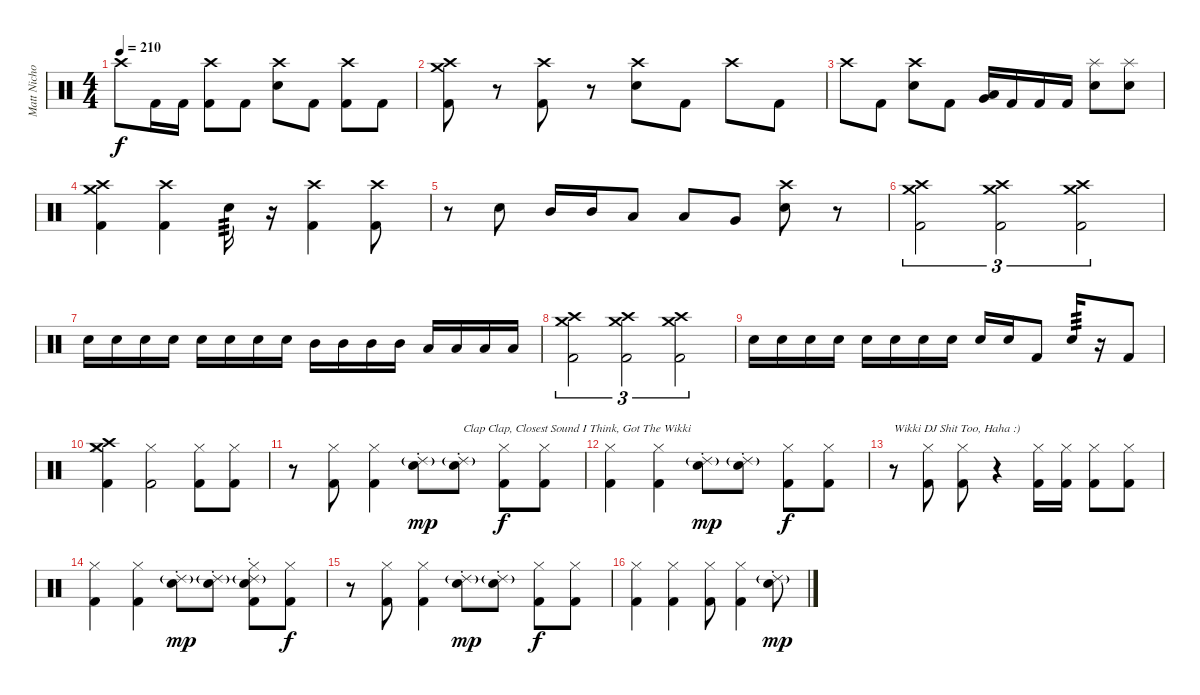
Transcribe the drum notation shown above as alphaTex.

\track ("Matt Nichols" "Matt Nicho") {instrument percussion}
\staff {score}
\articulation defaults
\ts (4 4)
\tempo 210
\clef neutral
\ks c "Crash high (hit)".8{dy f} "Kick (hit) 2".16 "Kick (hit) 2".16
("Crash high (hit)" "Kick (hit) 2").8 "Kick (hit) 2".8 ("Crash high (hit)" "Snare (hit) 2").8 "Kick (hit) 2".8 ("Crash high (hit)" "Kick (hit) 2").8 "Kick (hit) 2".8 |
("Crash high (hit)" "Crash medium (hit)" "Kick (hit) 2").8 r.8 ("Crash high (hit)" "Kick (hit) 2").8 r.8 ("Crash high (hit)" "Snare (hit) 2").8 "Kick (hit) 2".8 "Crash high (hit)".8 "Kick (hit) 2".8 |
"Crash high (hit)".8 "Kick (hit) 2".8 ("Crash high (hit)" "Snare (hit) 2").8 "Kick (hit) 2".8 ("Low Tom (hit)" "Very Low Tom (hit)").16 "Kick (hit) 2".16 "Kick (hit) 2".16 "Kick (hit) 2".16 ("Splash (hit)" "Snare (hit) 2").8 ("Splash (hit)" "Snare (hit) 2").8 |
("Crash high (hit)" "Crash medium (hit)" "Kick (hit) 2").4 ("Crash high (hit)" "Kick (hit) 2").4 "Snare (hit) 2".16{tp 3} r.16 ("Crash high (hit)" "Kick (hit) 2").4 ("Crash high (hit)" "Kick (hit) 2").8 |
r.8{volume 0} "Snare (hit) 2".8{volume 16} "Mid Tom (hit)".16 "Mid Tom (hit)".16 "Low Tom (hit)".8 "Low Tom (hit)".8 "Very Low Tom (hit)".8 ("Crash high (hit)" "Snare (hit) 2").8 r.8 |
("Crash high (hit)" "Crash medium (hit)" "Kick (hit) 2").2{tu (3 2)} ("Crash high (hit)" "Crash medium (hit)" "Kick (hit) 2").2{tu (3 2)} ("Crash high (hit)" "Crash medium (hit)" "Kick (hit) 2").2{tu (3 2)} |
"Snare (hit) 2".16 "Snare (hit) 2".16 "Snare (hit) 2".16 "Snare (hit) 2".16 "Snare (hit) 2".16 "Snare (hit) 2".16 "Snare (hit) 2".16 "Snare (hit) 2".16 "Mid Tom (hit)".16 "Mid Tom (hit)".16 "Mid Tom (hit)".16 "Mid Tom (hit)".16 "Low Tom (hit)".16 "Low Tom (hit)".16 "Low Tom (hit)".16 "Low Tom (hit)".16 |
("Crash high (hit)" "Crash medium (hit)" "Kick (hit) 2").2{tu (3 2)} ("Crash high (hit)" "Crash medium (hit)" "Kick (hit) 2").2{tu (3 2)} ("Crash high (hit)" "Crash medium (hit)" "Kick (hit) 2").2{tu (3 2)} |
"Snare (hit) 2".16 "Snare (hit) 2".16 "Snare (hit) 2".16 "Snare (hit) 2".16 "Snare (hit) 2".16 "Snare (hit) 2".16 "Snare (hit) 2".16 "Snare (hit) 2".16 "Snare (hit) 2".16 "Snare (hit) 2".16 "Kick (hit) 2".8 "Snare (hit) 2".16{tp 3} r.16 "Kick (hit) 2".8 |
("Crash high (hit)" "Crash medium (hit)" "Hi-Hat (closed)" "Kick (hit) 2").4 ("Hi-Hat (closed)" "Kick (hit) 2").2 ("Hi-Hat (closed)" "Kick (hit) 2").8 ("Hi-Hat (closed)" "Kick (hit) 2").8 |
r.8 ("Hi-Hat (closed)" "Kick (hit) 2").8 ("Hi-Hat (closed)" "Kick (hit) 2").4 ("Hand Clap (hit)" "Ride (choke) 2"{g}).8{dy mp} ("Hand Clap (hit)" "Ride (choke) 2"{g}).8{txt "Clap Clap, Closest Sound I Think, Got The Wikki"} ("Hi-Hat (closed)" "Kick (hit) 2").8{dy f} ("Hi-Hat (closed)" "Kick (hit) 2").8 |
("Hi-Hat (closed)" "Kick (hit) 2").4 ("Hi-Hat (closed)" "Kick (hit) 2").4 ("Hand Clap (hit)" "Ride (choke) 2"{g}).8{dy mp} ("Hand Clap (hit)" "Ride (choke) 2"{g}).8 ("Hi-Hat (closed)" "Kick (hit) 2").8{dy f} ("Hi-Hat (closed)" "Kick (hit) 2").8 |
r.8{txt "Wikki DJ Shit Too, Haha :)"} ("Hi-Hat (closed)" "Kick (hit) 2").8 ("Hi-Hat (closed)" "Kick (hit) 2").8 r.4 ("Hi-Hat (closed)" "Kick (hit) 2").16 ("Hi-Hat (closed)" "Kick (hit) 2").16 ("Hi-Hat (closed)" "Kick (hit) 2").8 ("Hi-Hat (closed)" "Kick (hit) 2").8 |
("Hi-Hat (closed)" "Kick (hit) 2").4 ("Hi-Hat (closed)" "Kick (hit) 2").4 ("Hand Clap (hit)" "Ride (choke) 2"{g}).8{dy mp} ("Hand Clap (hit)" "Ride (choke) 2"{g}).8 ("Hand Clap (hit)" "Ride (choke) 2"{g} "Hi-Hat (closed)" "Kick (hit) 2").8 ("Hi-Hat (closed)" "Kick (hit) 2").8{dy f} |
r.8 ("Hi-Hat (closed)" "Kick (hit) 2").8 ("Hi-Hat (closed)" "Kick (hit) 2").4 ("Hand Clap (hit)" "Ride (choke) 2"{g}).8{dy mp} ("Hand Clap (hit)" "Ride (choke) 2"{g}).8 ("Hi-Hat (closed)" "Kick (hit) 2").8{dy f} ("Hi-Hat (closed)" "Kick (hit) 2").8 |
("Hi-Hat (closed)" "Kick (hit) 2").4 ("Hi-Hat (closed)" "Kick (hit) 2").4 ("Hi-Hat (closed)" "Kick (hit) 2").8 ("Hi-Hat (closed)" "Kick (hit) 2").4 ("Hand Clap (hit)" "Ride (choke) 2"{g}).8{dy mp}
